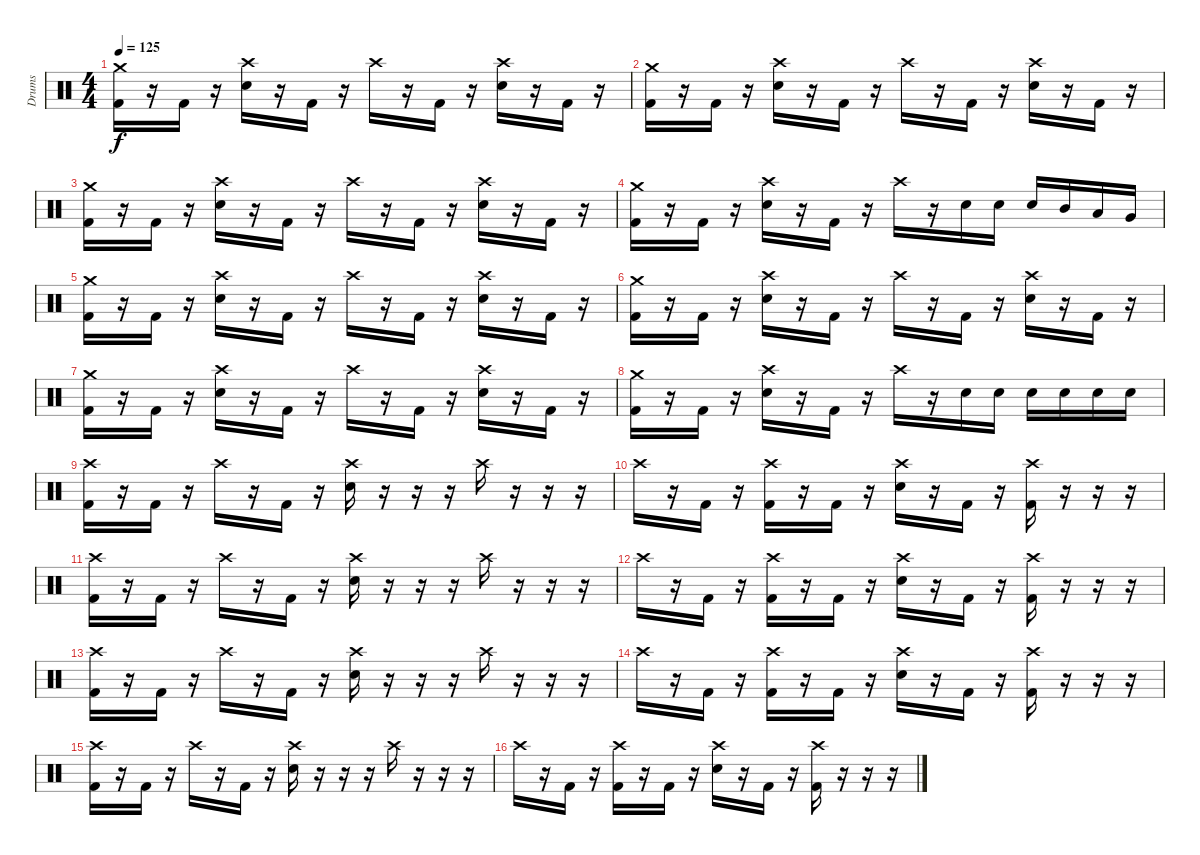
\track ("Drums" "Drums") {instrument percussion}
\staff {score}
\articulation defaults
\ts (4 4)
\tempo 125
\clef neutral
\ks c
("Crash medium (hit)" "Kick (hit) 2").16{dy f} r.16 "Kick (hit) 2".16 r.16 ("Crash high (hit)" "Snare (hit) 2").16 r.16 "Kick (hit) 2".16 r.16 "Crash high (hit)".16 r.16 "Kick (hit) 2".16 r.16 ("Crash high (hit)" "Snare (hit) 2").16 r.16 "Kick (hit) 2".16 r.16 |
("Crash medium (hit)" "Kick (hit) 2").16 r.16 "Kick (hit) 2".16 r.16 ("Crash high (hit)" "Snare (hit) 2").16 r.16 "Kick (hit) 2".16 r.16 "Crash high (hit)".16 r.16 "Kick (hit) 2".16 r.16 ("Crash high (hit)" "Snare (hit) 2").16 r.16 "Kick (hit) 2".16 r.16 |
("Crash medium (hit)" "Kick (hit) 2").16 r.16 "Kick (hit) 2".16 r.16 ("Crash high (hit)" "Snare (hit) 2").16 r.16 "Kick (hit) 2".16 r.16 "Crash high (hit)".16 r.16 "Kick (hit) 2".16 r.16 ("Crash high (hit)" "Snare (hit) 2").16 r.16 "Kick (hit) 2".16 r.16 |
("Crash medium (hit)" "Kick (hit) 2").16 r.16 "Kick (hit) 2".16 r.16 ("Crash high (hit)" "Snare (hit) 2").16 r.16 "Kick (hit) 2".16 r.16 "Crash high (hit)".16 r.16 "Snare (hit) 2".16 "Snare (hit) 2".16 "Snare (hit) 2".16 "Mid Tom (hit)".16 "Low Tom (hit)".16 "Very Low Tom (hit)".16 |
("Crash medium (hit)" "Kick (hit) 2").16 r.16 "Kick (hit) 2".16 r.16 ("Crash high (hit)" "Snare (hit) 2").16 r.16 "Kick (hit) 2".16 r.16 "Crash high (hit)".16 r.16 "Kick (hit) 2".16 r.16 ("Crash high (hit)" "Snare (hit) 2").16 r.16 "Kick (hit) 2".16 r.16 |
("Crash medium (hit)" "Kick (hit) 2").16 r.16 "Kick (hit) 2".16 r.16 ("Crash high (hit)" "Snare (hit) 2").16 r.16 "Kick (hit) 2".16 r.16 "Crash high (hit)".16 r.16 "Kick (hit) 2".16 r.16 ("Crash high (hit)" "Snare (hit) 2").16 r.16 "Kick (hit) 2".16 r.16 |
("Crash medium (hit)" "Kick (hit) 2").16 r.16 "Kick (hit) 2".16 r.16 ("Crash high (hit)" "Snare (hit) 2").16 r.16 "Kick (hit) 2".16 r.16 "Crash high (hit)".16 r.16 "Kick (hit) 2".16 r.16 ("Crash high (hit)" "Snare (hit) 2").16 r.16 "Kick (hit) 2".16 r.16 |
("Crash medium (hit)" "Kick (hit) 2").16 r.16 "Kick (hit) 2".16 r.16 ("Crash high (hit)" "Snare (hit) 2").16 r.16 "Kick (hit) 2".16 r.16 "Crash high (hit)".16 r.16 "Snare (hit) 2".16 "Snare (hit) 2".16 "Snare (hit) 2".16 "Snare (hit) 2".16 "Snare (hit) 2".16 "Snare (hit) 2".16 |
("Crash high (hit)" "Kick (hit) 2").16 r.16 "Kick (hit) 2".16 r.16 "Crash high (hit)".16 r.16 "Kick (hit) 2".16 r.16 ("Crash high (hit)" "Snare (hit) 2").16 r.16 r.16 r.16 "Crash high (hit)".16 r.16 r.16 r.16 |
"Crash high (hit)".16 r.16 "Kick (hit) 2".16 r.16 ("Crash high (hit)" "Kick (hit) 2").16 r.16 "Kick (hit) 2".16 r.16 ("Crash high (hit)" "Snare (hit) 2").16 r.16 "Kick (hit) 2".16 r.16 ("Crash high (hit)" "Kick (hit) 2").16 r.16 r.16 r.16 |
("Crash high (hit)" "Kick (hit) 2").16 r.16 "Kick (hit) 2".16 r.16 "Crash high (hit)".16 r.16 "Kick (hit) 2".16 r.16 ("Crash high (hit)" "Snare (hit) 2").16 r.16 r.16 r.16 "Crash high (hit)".16 r.16 r.16 r.16 |
"Crash high (hit)".16 r.16 "Kick (hit) 2".16 r.16 ("Crash high (hit)" "Kick (hit) 2").16 r.16 "Kick (hit) 2".16 r.16 ("Crash high (hit)" "Snare (hit) 2").16 r.16 "Kick (hit) 2".16 r.16 ("Crash high (hit)" "Kick (hit) 2").16 r.16 r.16 r.16 |
("Crash high (hit)" "Kick (hit) 2").16 r.16 "Kick (hit) 2".16 r.16 "Crash high (hit)".16 r.16 "Kick (hit) 2".16 r.16 ("Crash high (hit)" "Snare (hit) 2").16 r.16 r.16 r.16 "Crash high (hit)".16 r.16 r.16 r.16 |
"Crash high (hit)".16 r.16 "Kick (hit) 2".16 r.16 ("Crash high (hit)" "Kick (hit) 2").16 r.16 "Kick (hit) 2".16 r.16 ("Crash high (hit)" "Snare (hit) 2").16 r.16 "Kick (hit) 2".16 r.16 ("Crash high (hit)" "Kick (hit) 2").16 r.16 r.16 r.16 |
("Crash high (hit)" "Kick (hit) 2").16 r.16 "Kick (hit) 2".16 r.16 "Crash high (hit)".16 r.16 "Kick (hit) 2".16 r.16 ("Crash high (hit)" "Snare (hit) 2").16 r.16 r.16 r.16 "Crash high (hit)".16 r.16 r.16 r.16 |
"Crash high (hit)".16 r.16 "Kick (hit) 2".16 r.16 ("Crash high (hit)" "Kick (hit) 2").16 r.16 "Kick (hit) 2".16 r.16 ("Crash high (hit)" "Snare (hit) 2").16 r.16 "Kick (hit) 2".16 r.16 ("Crash high (hit)" "Kick (hit) 2").16 r.16 r.16 r.16
